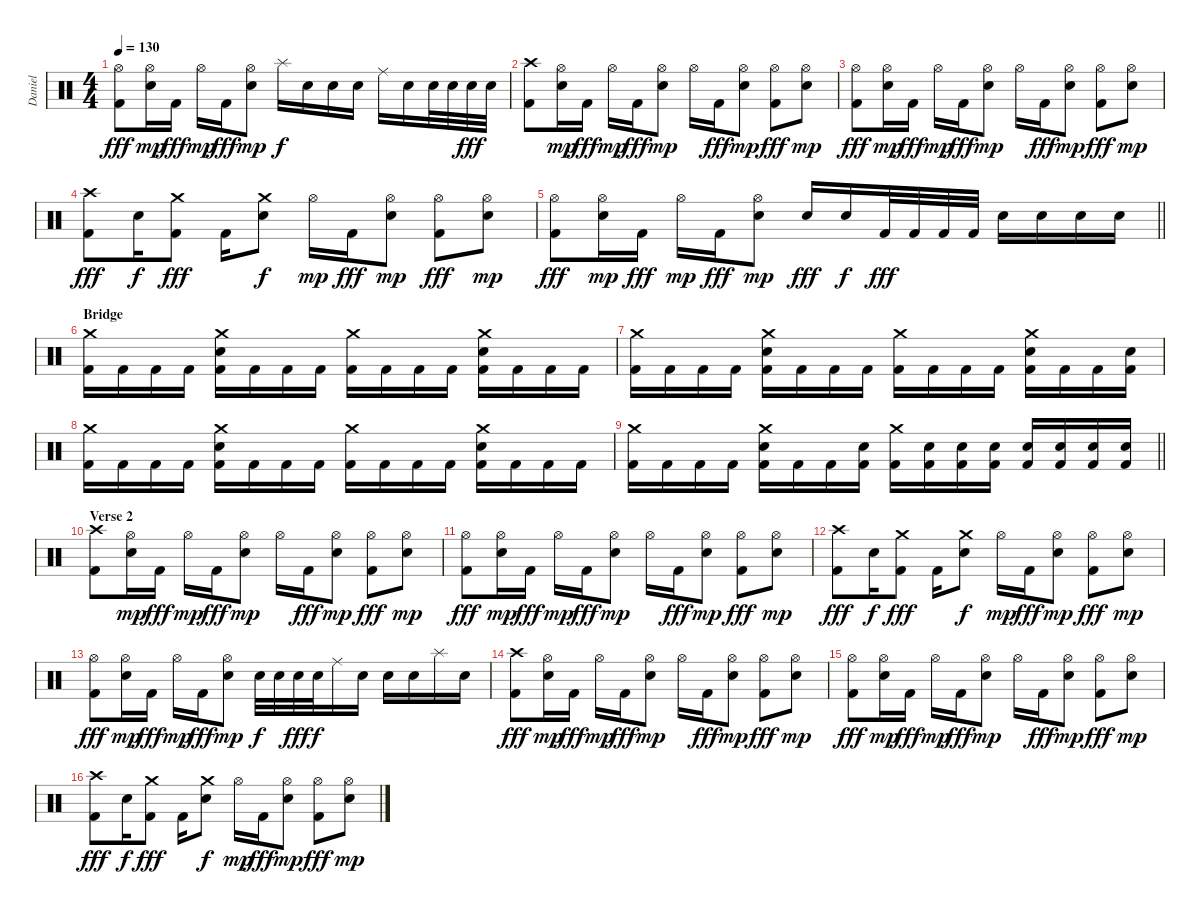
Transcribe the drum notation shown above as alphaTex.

\track ("Daniel" "Daniel") {instrument percussion}
\staff {score}
\articulation defaults
\ts (4 4)
\tempo 130
\clef neutral
\ks c
("Hi-Hat (open)" "Kick (hit) 2").8{dy fff} ("Hi-Hat (open)" "Electric Snare (hit)").16{dy mp} "Kick (hit) 2".16{dy fff} "Hi-Hat (open)".16{dy mp} "Kick (hit) 2".16{dy fff} ("Hi-Hat (open)" "Electric Snare (hit)").8{dy mp} "Splash (hit)".16{dy f} "Electric Snare (hit)".16 "Electric Snare (hit)".16 "Electric Snare (hit)".16 "Ride (middle)".16 "Electric Snare (hit)".16 "Electric Snare (hit)".32 "Electric Snare (hit)".32 "Electric Snare (hit)".32{dy fff} "Electric Snare (hit)".32 |
("Crash high (hit)" "Kick (hit) 2").8 ("Hi-Hat (open)" "Electric Snare (hit)").16{dy mp} "Kick (hit) 2".16{dy fff} "Hi-Hat (open)".16{dy mp} "Kick (hit) 2".16{dy fff} ("Hi-Hat (open)" "Electric Snare (hit)").8{dy mp} "Hi-Hat (open)".16 "Kick (hit) 2".16{dy fff} ("Hi-Hat (open)" "Electric Snare (hit)").8{dy mp} ("Hi-Hat (open)" "Kick (hit) 2").8{dy fff} ("Hi-Hat (open)" "Electric Snare (hit)").8{dy mp} |
("Hi-Hat (open)" "Kick (hit) 2").8{dy fff} ("Hi-Hat (open)" "Electric Snare (hit)").16{dy mp} "Kick (hit) 2".16{dy fff} "Hi-Hat (open)".16{dy mp} "Kick (hit) 2".16{dy fff} ("Hi-Hat (open)" "Electric Snare (hit)").8{dy mp} "Hi-Hat (open)".16 "Kick (hit) 2".16{dy fff} ("Hi-Hat (open)" "Electric Snare (hit)").8{dy mp} ("Hi-Hat (open)" "Kick (hit) 2").8{dy fff} ("Hi-Hat (open)" "Electric Snare (hit)").8{dy mp} |
("Crash high (hit)" "Kick (hit) 2").8{dy fff} "Electric Snare (hit)".16{dy f} ("Crash medium (hit)" "Kick (hit) 2").8{dy fff} "Kick (hit) 2".16 ("Crash medium (hit)" "Electric Snare (hit)").8{dy f} "Hi-Hat (open)".16{dy mp} "Kick (hit) 2".16{dy fff} ("Hi-Hat (open)" "Electric Snare (hit)").8{dy mp} ("Hi-Hat (open)" "Kick (hit) 2").8{dy fff} ("Hi-Hat (open)" "Electric Snare (hit)").8{dy mp} |
\barLineRight lightlight
("Hi-Hat (open)" "Kick (hit) 2").8{dy fff} ("Hi-Hat (open)" "Electric Snare (hit)").16{dy mp} "Kick (hit) 2".16{dy fff} "Hi-Hat (open)".16{dy mp} "Kick (hit) 2".16{dy fff} ("Hi-Hat (open)" "Electric Snare (hit)").8{dy mp} "Electric Snare (hit)".16{dy fff} "Electric Snare (hit)".16{dy f} "Kick (hit) 2".32{dy fff} "Kick (hit) 2".32 "Kick (hit) 2".32 "Kick (hit) 2".32 "Electric Snare (hit)".16 "Electric Snare (hit)".16 "Electric Snare (hit)".16 "Electric Snare (hit)".16 |
\section ("" "Bridge")
("Crash medium (hit)" "Kick (hit) 2").16 "Kick (hit) 2".16 "Kick (hit) 2".16 "Kick (hit) 2".16 ("Crash medium (hit)" "Electric Snare (hit)" "Kick (hit) 2").16 "Kick (hit) 2".16 "Kick (hit) 2".16 "Kick (hit) 2".16 ("Crash medium (hit)" "Kick (hit) 2").16 "Kick (hit) 2".16 "Kick (hit) 2".16 "Kick (hit) 2".16 ("Crash medium (hit)" "Electric Snare (hit)" "Kick (hit) 2").16 "Kick (hit) 2".16 "Kick (hit) 2".16 "Kick (hit) 2".16 |
("Crash medium (hit)" "Kick (hit) 2").16 "Kick (hit) 2".16 "Kick (hit) 2".16 "Kick (hit) 2".16 ("Crash medium (hit)" "Electric Snare (hit)" "Kick (hit) 2").16 "Kick (hit) 2".16 "Kick (hit) 2".16 "Kick (hit) 2".16 ("Crash medium (hit)" "Kick (hit) 2").16 "Kick (hit) 2".16 "Kick (hit) 2".16 "Kick (hit) 2".16 ("Crash medium (hit)" "Electric Snare (hit)" "Kick (hit) 2").16 "Kick (hit) 2".16 "Kick (hit) 2".16 ("Electric Snare (hit)" "Kick (hit) 2").16 |
("Crash medium (hit)" "Kick (hit) 2").16 "Kick (hit) 2".16 "Kick (hit) 2".16 "Kick (hit) 2".16 ("Crash medium (hit)" "Electric Snare (hit)" "Kick (hit) 2").16 "Kick (hit) 2".16 "Kick (hit) 2".16 "Kick (hit) 2".16 ("Crash medium (hit)" "Kick (hit) 2").16 "Kick (hit) 2".16 "Kick (hit) 2".16 "Kick (hit) 2".16 ("Crash medium (hit)" "Electric Snare (hit)" "Kick (hit) 2").16 "Kick (hit) 2".16 "Kick (hit) 2".16 "Kick (hit) 2".16 |
\barLineRight lightlight
("Crash medium (hit)" "Kick (hit) 2").16 "Kick (hit) 2".16 "Kick (hit) 2".16 "Kick (hit) 2".16 ("Crash medium (hit)" "Electric Snare (hit)" "Kick (hit) 2").16 "Kick (hit) 2".16 "Kick (hit) 2".16 ("Electric Snare (hit)" "Kick (hit) 2").16 ("Crash medium (hit)" "Kick (hit) 2").16 ("Electric Snare (hit)" "Kick (hit) 2").16 ("Electric Snare (hit)" "Kick (hit) 2").16 ("Electric Snare (hit)" "Kick (hit) 2").16 ("Electric Snare (hit)" "Kick (hit) 2").16 ("Electric Snare (hit)" "Kick (hit) 2").16 ("Electric Snare (hit)" "Kick (hit) 2").16 ("Electric Snare (hit)" "Kick (hit) 2").16 |
\section ("" "Verse 2")
("Crash high (hit)" "Kick (hit) 2").8 ("Hi-Hat (open)" "Electric Snare (hit)").16{dy mp} "Kick (hit) 2".16{dy fff} "Hi-Hat (open)".16{dy mp} "Kick (hit) 2".16{dy fff} ("Hi-Hat (open)" "Electric Snare (hit)").8{dy mp} "Hi-Hat (open)".16 "Kick (hit) 2".16{dy fff} ("Hi-Hat (open)" "Electric Snare (hit)").8{dy mp} ("Hi-Hat (open)" "Kick (hit) 2").8{dy fff} ("Hi-Hat (open)" "Electric Snare (hit)").8{dy mp} |
("Hi-Hat (open)" "Kick (hit) 2").8{dy fff} ("Hi-Hat (open)" "Electric Snare (hit)").16{dy mp} "Kick (hit) 2".16{dy fff} "Hi-Hat (open)".16{dy mp} "Kick (hit) 2".16{dy fff} ("Hi-Hat (open)" "Electric Snare (hit)").8{dy mp} "Hi-Hat (open)".16 "Kick (hit) 2".16{dy fff} ("Hi-Hat (open)" "Electric Snare (hit)").8{dy mp} ("Hi-Hat (open)" "Kick (hit) 2").8{dy fff} ("Hi-Hat (open)" "Electric Snare (hit)").8{dy mp} |
("Crash high (hit)" "Kick (hit) 2").8{dy fff} "Electric Snare (hit)".16{dy f} ("Crash medium (hit)" "Kick (hit) 2").8{dy fff} "Kick (hit) 2".16 ("Crash medium (hit)" "Electric Snare (hit)").8{dy f} "Hi-Hat (open)".16{dy mp} "Kick (hit) 2".16{dy fff} ("Hi-Hat (open)" "Electric Snare (hit)").8{dy mp} ("Hi-Hat (open)" "Kick (hit) 2").8{dy fff} ("Hi-Hat (open)" "Electric Snare (hit)").8{dy mp} |
("Hi-Hat (open)" "Kick (hit) 2").8{dy fff} ("Hi-Hat (open)" "Electric Snare (hit)").16{dy mp} "Kick (hit) 2".16{dy fff} "Hi-Hat (open)".16{dy mp} "Kick (hit) 2".16{dy fff} ("Hi-Hat (open)" "Electric Snare (hit)").8{dy mp} "Electric Snare (hit)".32{dy f} "Electric Snare (hit)".32 "Electric Snare (hit)".32{dy fff} "Electric Snare (hit)".32{dy f} "Ride (middle)".16 "Electric Snare (hit)".16 "Electric Snare (hit)".16 "Electric Snare (hit)".16 "Splash (hit)".16 "Electric Snare (hit)".16 |
("Crash high (hit)" "Kick (hit) 2").8{dy fff} ("Hi-Hat (open)" "Electric Snare (hit)").16{dy mp} "Kick (hit) 2".16{dy fff} "Hi-Hat (open)".16{dy mp} "Kick (hit) 2".16{dy fff} ("Hi-Hat (open)" "Electric Snare (hit)").8{dy mp} "Hi-Hat (open)".16 "Kick (hit) 2".16{dy fff} ("Hi-Hat (open)" "Electric Snare (hit)").8{dy mp} ("Hi-Hat (open)" "Kick (hit) 2").8{dy fff} ("Hi-Hat (open)" "Electric Snare (hit)").8{dy mp} |
("Hi-Hat (open)" "Kick (hit) 2").8{dy fff} ("Hi-Hat (open)" "Electric Snare (hit)").16{dy mp} "Kick (hit) 2".16{dy fff} "Hi-Hat (open)".16{dy mp} "Kick (hit) 2".16{dy fff} ("Hi-Hat (open)" "Electric Snare (hit)").8{dy mp} "Hi-Hat (open)".16 "Kick (hit) 2".16{dy fff} ("Hi-Hat (open)" "Electric Snare (hit)").8{dy mp} ("Hi-Hat (open)" "Kick (hit) 2").8{dy fff} ("Hi-Hat (open)" "Electric Snare (hit)").8{dy mp} |
("Crash high (hit)" "Kick (hit) 2").8{dy fff} "Electric Snare (hit)".16{dy f} ("Crash medium (hit)" "Kick (hit) 2").8{dy fff} "Kick (hit) 2".16 ("Crash medium (hit)" "Electric Snare (hit)").8{dy f} "Hi-Hat (open)".16{dy mp} "Kick (hit) 2".16{dy fff} ("Hi-Hat (open)" "Electric Snare (hit)").8{dy mp} ("Hi-Hat (open)" "Kick (hit) 2").8{dy fff} ("Hi-Hat (open)" "Electric Snare (hit)").8{dy mp}
